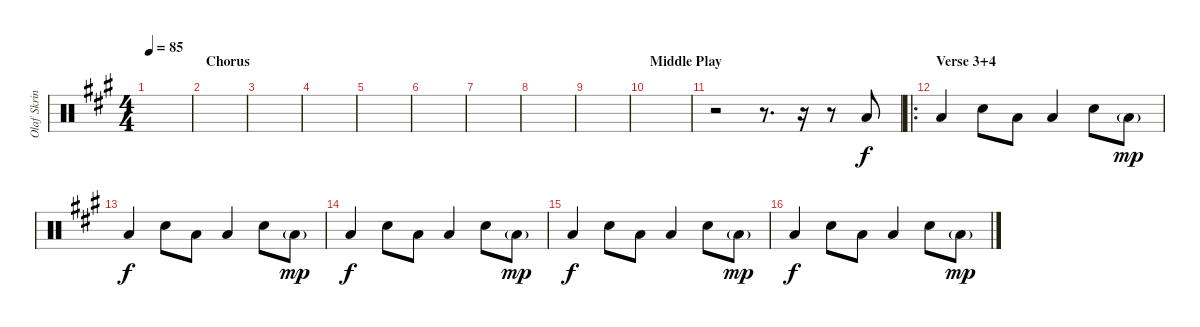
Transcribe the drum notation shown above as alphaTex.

\track ("Olaf Skrinde (Drums)" "Olaf Skrin") {instrument percussion}
\staff {score}
\articulation defaults
\ts (4 4)
\tempo 85
\clef neutral
\ks a
|
\section ("" "Chorus")
|
|
|
|
|
|
|
|
\section ("" "Middle Play")
|
r.2 r.8{d} r.16 r.8 "Low Tom (hit)".8 |
\ro
\section ("" "Verse 3+4")
"Low Floor Tom (hit)".4 "Snare (hit) 2".8 "Low Floor Tom (hit)".8 "Low Floor Tom (hit)".4 "Snare (hit) 2".8 "Low Floor Tom (hit)"{g}.8{dy mp} |
"Low Floor Tom (hit)".4{dy f} "Snare (hit) 2".8 "Low Floor Tom (hit)".8 "Low Floor Tom (hit)".4 "Snare (hit) 2".8 "Low Floor Tom (hit)"{g}.8{dy mp} |
"Low Floor Tom (hit)".4{dy f} "Snare (hit) 2".8 "Low Floor Tom (hit)".8 "Low Floor Tom (hit)".4 "Snare (hit) 2".8 "Low Floor Tom (hit)"{g}.8{dy mp} |
"Low Floor Tom (hit)".4{dy f} "Snare (hit) 2".8 "Low Floor Tom (hit)".8 "Low Floor Tom (hit)".4 "Snare (hit) 2".8 "Low Floor Tom (hit)"{g}.8{dy mp} |
"Low Floor Tom (hit)".4{dy f} "Snare (hit) 2".8 "Low Floor Tom (hit)".8 "Low Floor Tom (hit)".4 "Snare (hit) 2".8 "Low Floor Tom (hit)"{g}.8{dy mp}
